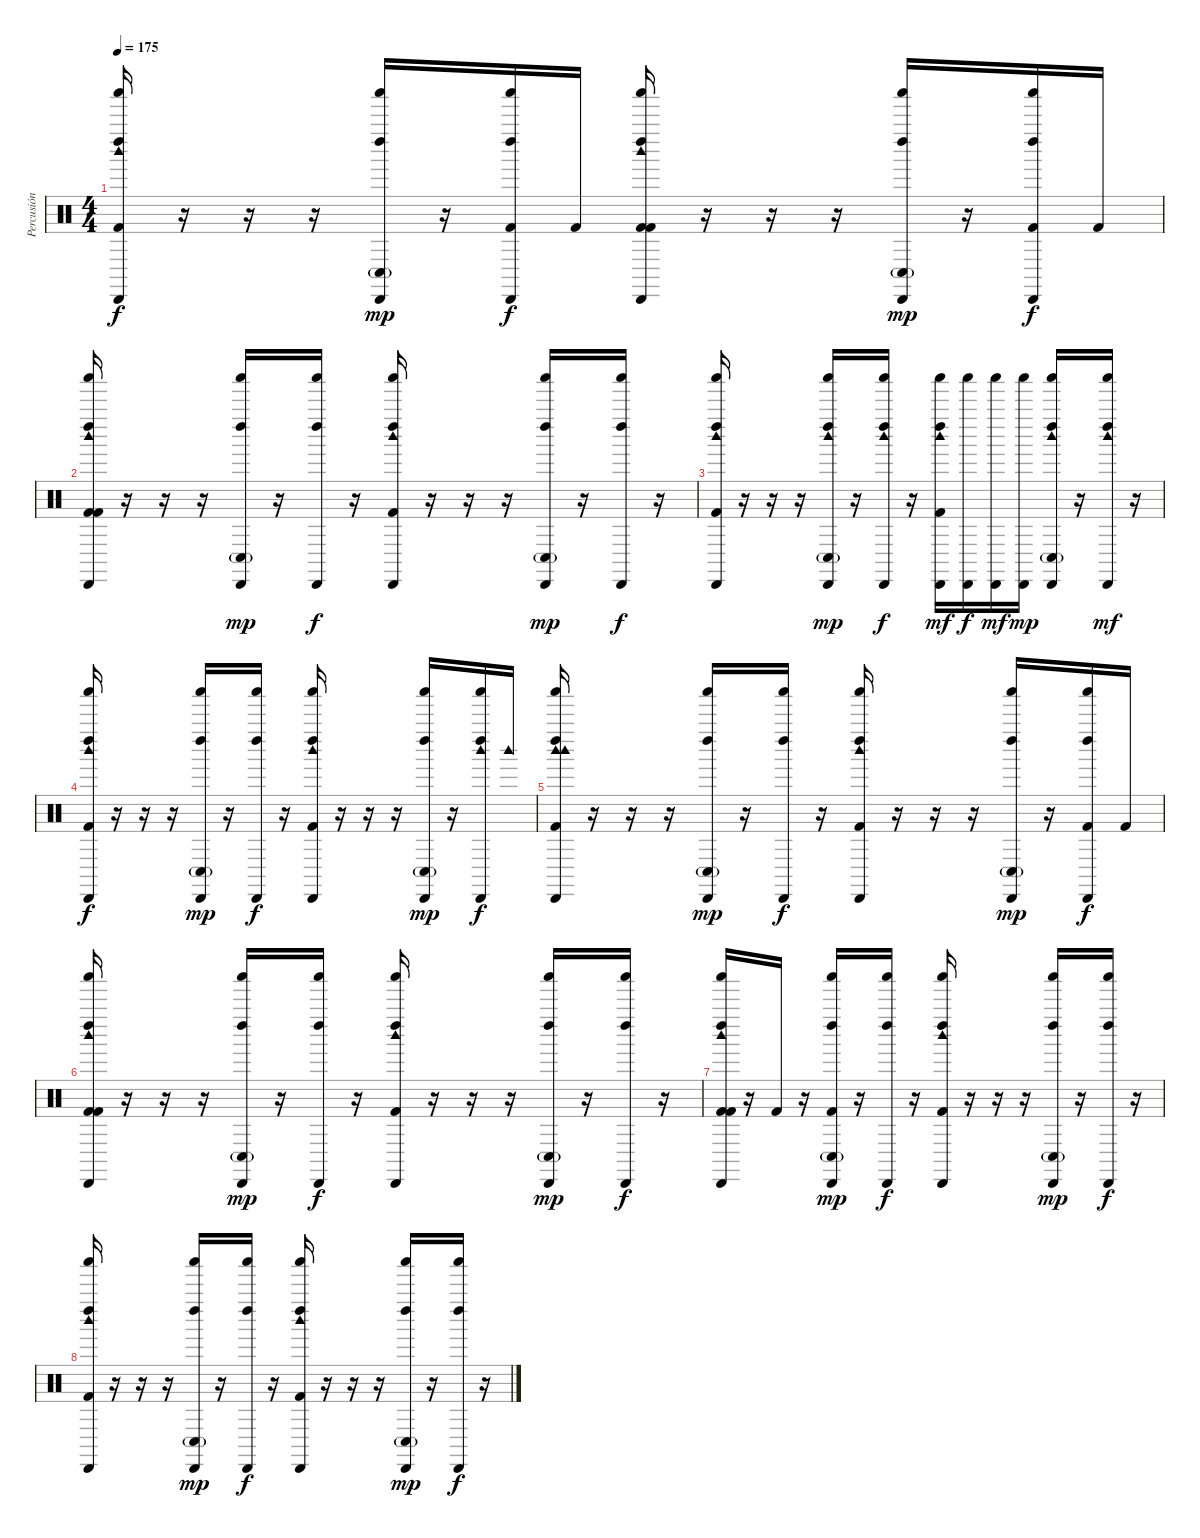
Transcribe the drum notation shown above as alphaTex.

\track ("Percusión" "Percusión") {instrument percussion}
\staff {score}
\articulation defaults
\ts (4 4)
\tempo 175
\clef neutral
\ks c
("Cabasa (hit)" "Shaker (hit)" "Kick (hit) 2" "Left Maraca (hit)" "Woodblock high (hit)").16{dy f} r.16 r.16 r.16 ("Cabasa (hit)" "Shaker (hit)" "Conga low (hit)"{g} "Left Maraca (hit)").16{dy mp} r.16 ("Kick (hit) 2" "Cabasa (hit)" "Shaker (hit)" "Left Maraca (hit)").16{dy f} "Kick (hit) 2".16 ("Kick (hit) 2" "Cabasa (hit)" "Shaker (hit)" "Kick (hit) 2" "Left Maraca (hit)" "Woodblock high (hit)").16 r.16 r.16 r.16 ("Cabasa (hit)" "Shaker (hit)" "Conga low (hit)"{g} "Left Maraca (hit)").16{dy mp} r.16 ("Kick (hit) 2" "Cabasa (hit)" "Shaker (hit)" "Left Maraca (hit)").16{dy f} "Kick (hit) 2".16 |
("Kick (hit) 2" "Cabasa (hit)" "Shaker (hit)" "Kick (hit) 2" "Left Maraca (hit)" "Woodblock high (hit)").16 r.16 r.16 r.16 ("Cabasa (hit)" "Shaker (hit)" "Conga low (hit)"{g} "Left Maraca (hit)").16{dy mp} r.16 ("Cabasa (hit)" "Shaker (hit)" "Left Maraca (hit)").16{dy f} r.16 ("Cabasa (hit)" "Shaker (hit)" "Kick (hit) 2" "Left Maraca (hit)" "Woodblock high (hit)").16 r.16 r.16 r.16 ("Cabasa (hit)" "Shaker (hit)" "Conga low (hit)"{g} "Left Maraca (hit)").16{dy mp} r.16 ("Cabasa (hit)" "Shaker (hit)" "Left Maraca (hit)").16{dy f} r.16 |
("Cabasa (hit)" "Shaker (hit)" "Kick (hit) 2" "Left Maraca (hit)" "Woodblock high (hit)").16 r.16 r.16 r.16 ("Cabasa (hit)" "Shaker (hit)" "Conga low (hit)"{g} "Left Maraca (hit)" "Woodblock high (hit)").16{dy mp} r.16 ("Cabasa (hit)" "Shaker (hit)" "Left Maraca (hit)" "Woodblock high (hit)").16{dy f} r.16 ("Cabasa (hit)" "Shaker (hit)" "Left Maraca (hit)" "Woodblock high (hit)" "Kick (hit) 2").16{dy mf} ("Cabasa (hit)" "Shaker (hit)").16{dy f} ("Cabasa (hit)" "Shaker (hit)").16{dy mf} ("Cabasa (hit)" "Shaker (hit)").16{dy mp} ("Cabasa (hit)" "Shaker (hit)" "Left Maraca (hit)" "Woodblock high (hit)" "Conga low (hit)"{g}).16 r.16 ("Cabasa (hit)" "Shaker (hit)" "Left Maraca (hit)" "Woodblock high (hit)").16{dy mf} r.16 |
("Cabasa (hit)" "Shaker (hit)" "Kick (hit) 2" "Left Maraca (hit)" "Woodblock high (hit)").16{dy f} r.16 r.16 r.16 ("Cabasa (hit)" "Shaker (hit)" "Conga low (hit)"{g} "Left Maraca (hit)").16{dy mp} r.16 ("Cabasa (hit)" "Shaker (hit)" "Left Maraca (hit)").16{dy f} r.16 ("Cabasa (hit)" "Shaker (hit)" "Kick (hit) 2" "Left Maraca (hit)" "Woodblock high (hit)").16 r.16 r.16 r.16 ("Cabasa (hit)" "Shaker (hit)" "Conga low (hit)"{g} "Left Maraca (hit)").16{dy mp} r.16 ("Woodblock high (hit)" "Cabasa (hit)" "Shaker (hit)" "Left Maraca (hit)").16{dy f} "Woodblock high (hit)".16 |
("Woodblock high (hit)" "Cabasa (hit)" "Shaker (hit)" "Kick (hit) 2" "Left Maraca (hit)" "Woodblock high (hit)").16 r.16 r.16 r.16 ("Cabasa (hit)" "Shaker (hit)" "Conga low (hit)"{g} "Left Maraca (hit)").16{dy mp} r.16 ("Cabasa (hit)" "Shaker (hit)" "Left Maraca (hit)").16{dy f} r.16 ("Cabasa (hit)" "Shaker (hit)" "Kick (hit) 2" "Left Maraca (hit)" "Woodblock high (hit)").16 r.16 r.16 r.16 ("Cabasa (hit)" "Shaker (hit)" "Conga low (hit)"{g} "Left Maraca (hit)").16{dy mp} r.16 ("Kick (hit) 2" "Cabasa (hit)" "Shaker (hit)" "Left Maraca (hit)").16{dy f} "Kick (hit) 2".16 |
("Kick (hit) 2" "Cabasa (hit)" "Shaker (hit)" "Kick (hit) 2" "Left Maraca (hit)" "Woodblock high (hit)").16 r.16 r.16 r.16 ("Cabasa (hit)" "Shaker (hit)" "Conga low (hit)"{g} "Left Maraca (hit)").16{dy mp} r.16 ("Cabasa (hit)" "Shaker (hit)" "Left Maraca (hit)").16{dy f} r.16 ("Cabasa (hit)" "Shaker (hit)" "Kick (hit) 2" "Left Maraca (hit)" "Woodblock high (hit)").16 r.16 r.16 r.16 ("Cabasa (hit)" "Shaker (hit)" "Conga low (hit)"{g} "Left Maraca (hit)").16{dy mp} r.16 ("Cabasa (hit)" "Shaker (hit)" "Left Maraca (hit)").16{dy f} r.16 |
("Kick (hit) 2" "Cabasa (hit)" "Shaker (hit)" "Kick (hit) 2" "Left Maraca (hit)" "Woodblock high (hit)").16 r.16 "Kick (hit) 2".16 r.16 ("Kick (hit) 2" "Cabasa (hit)" "Shaker (hit)" "Conga low (hit)"{g} "Left Maraca (hit)").16{dy mp} r.16 ("Cabasa (hit)" "Shaker (hit)" "Left Maraca (hit)").16{dy f} r.16 ("Cabasa (hit)" "Shaker (hit)" "Kick (hit) 2" "Left Maraca (hit)" "Woodblock high (hit)").16 r.16 r.16 r.16 ("Cabasa (hit)" "Shaker (hit)" "Conga low (hit)"{g} "Left Maraca (hit)").16{dy mp} r.16 ("Cabasa (hit)" "Shaker (hit)" "Left Maraca (hit)").16{dy f} r.16 |
("Cabasa (hit)" "Shaker (hit)" "Kick (hit) 2" "Left Maraca (hit)" "Woodblock high (hit)").16 r.16 r.16 r.16 ("Cabasa (hit)" "Shaker (hit)" "Conga low (hit)"{g} "Left Maraca (hit)").16{dy mp} r.16 ("Cabasa (hit)" "Shaker (hit)" "Left Maraca (hit)").16{dy f} r.16 ("Cabasa (hit)" "Shaker (hit)" "Kick (hit) 2" "Left Maraca (hit)" "Woodblock high (hit)").16 r.16 r.16 r.16 ("Cabasa (hit)" "Shaker (hit)" "Conga low (hit)"{g} "Left Maraca (hit)").16{dy mp} r.16 ("Cabasa (hit)" "Shaker (hit)" "Left Maraca (hit)").16{dy f} r.16
